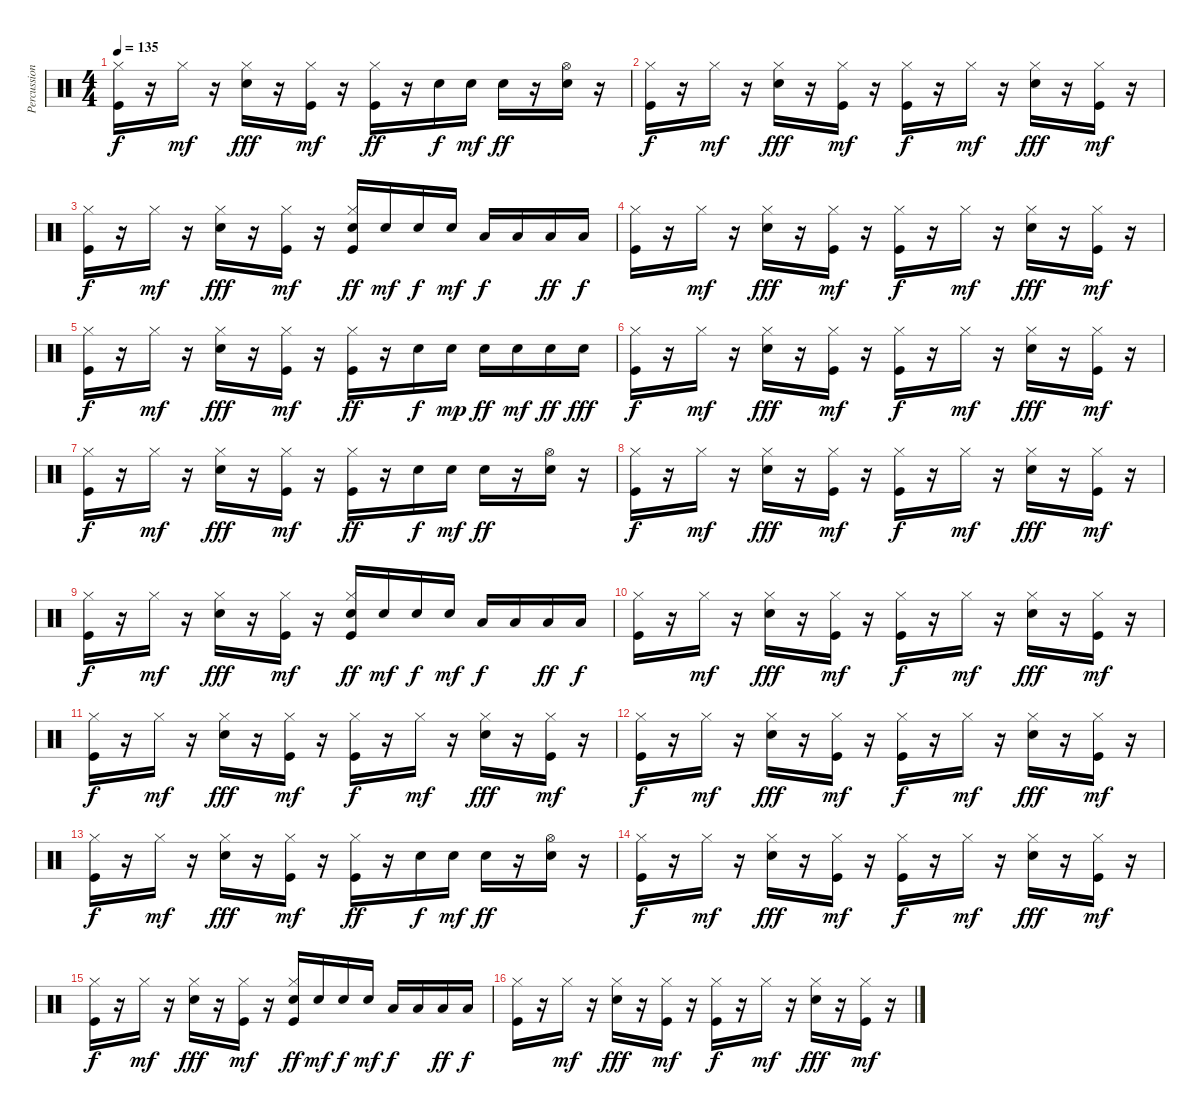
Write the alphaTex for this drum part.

\track ("Percussions" "Percussion") {instrument percussion}
\staff {score}
\articulation defaults
\ts (4 4)
\tempo 135
\clef neutral
\ks c
("Kick (hit)" "Hi-Hat (closed)").16{dy f} r.16 "Hi-Hat (closed)".16{dy mf} r.16 ("Snare (hit) 2" "Hi-Hat (closed)").16{dy fff} r.16 ("Kick (hit)" "Hi-Hat (closed)").16{dy mf} r.16 ("Kick (hit)" "Hi-Hat (closed)").16{dy ff} r.16 "Snare (hit) 2".16{dy f} "Snare (hit) 2".16{dy mf} "Snare (hit) 2".16{dy ff} r.16 ("Snare (hit) 2" "Hi-Hat (open)").16 r.16 |
("Kick (hit)" "Hi-Hat (closed)").16{dy f} r.16 "Hi-Hat (closed)".16{dy mf} r.16 ("Snare (hit) 2" "Hi-Hat (closed)").16{dy fff} r.16 ("Kick (hit)" "Hi-Hat (closed)").16{dy mf} r.16 ("Kick (hit)" "Hi-Hat (closed)").16{dy f} r.16 "Hi-Hat (closed)".16{dy mf} r.16 ("Snare (hit) 2" "Hi-Hat (closed)").16{dy fff} r.16 ("Kick (hit)" "Hi-Hat (closed)").16{dy mf} r.16 |
("Kick (hit)" "Hi-Hat (closed)").16{dy f} r.16 "Hi-Hat (closed)".16{dy mf} r.16 ("Snare (hit) 2" "Hi-Hat (closed)").16{dy fff} r.16 ("Kick (hit)" "Hi-Hat (closed)").16{dy mf} r.16 ("Kick (hit)" "Snare (hit) 2" "Hi-Hat (closed)").16{dy ff} "Snare (hit) 2".16{dy mf} "Snare (hit) 2".16{dy f} "Snare (hit) 2".16{dy mf} "Low Tom (hit)".16{dy f} "Low Tom (hit)".16 "Low Tom (hit)".16{dy ff} "Low Tom (hit)".16{dy f} |
("Kick (hit)" "Hi-Hat (closed)").16 r.16 "Hi-Hat (closed)".16{dy mf} r.16 ("Snare (hit) 2" "Hi-Hat (closed)").16{dy fff} r.16 ("Kick (hit)" "Hi-Hat (closed)").16{dy mf} r.16 ("Kick (hit)" "Hi-Hat (closed)").16{dy f} r.16 "Hi-Hat (closed)".16{dy mf} r.16 ("Snare (hit) 2" "Hi-Hat (closed)").16{dy fff} r.16 ("Kick (hit)" "Hi-Hat (closed)").16{dy mf} r.16 |
("Kick (hit)" "Hi-Hat (closed)").16{dy f} r.16 "Hi-Hat (closed)".16{dy mf} r.16 ("Snare (hit) 2" "Hi-Hat (closed)").16{dy fff} r.16 ("Kick (hit)" "Hi-Hat (closed)").16{dy mf} r.16 ("Kick (hit)" "Hi-Hat (closed)").16{dy ff} r.16 "Snare (hit) 2".16{dy f} "Snare (hit) 2".16{dy mp} "Snare (hit) 2".16{dy ff} "Snare (hit) 2".16{dy mf} "Snare (hit) 2".16{dy ff} "Snare (hit) 2".16{dy fff} |
("Kick (hit)" "Hi-Hat (closed)").16{dy f} r.16 "Hi-Hat (closed)".16{dy mf} r.16 ("Snare (hit) 2" "Hi-Hat (closed)").16{dy fff} r.16 ("Kick (hit)" "Hi-Hat (closed)").16{dy mf} r.16 ("Kick (hit)" "Hi-Hat (closed)").16{dy f} r.16 "Hi-Hat (closed)".16{dy mf} r.16 ("Snare (hit) 2" "Hi-Hat (closed)").16{dy fff} r.16 ("Kick (hit)" "Hi-Hat (closed)").16{dy mf} r.16 |
("Kick (hit)" "Hi-Hat (closed)").16{dy f} r.16 "Hi-Hat (closed)".16{dy mf} r.16 ("Snare (hit) 2" "Hi-Hat (closed)").16{dy fff} r.16 ("Kick (hit)" "Hi-Hat (closed)").16{dy mf} r.16 ("Kick (hit)" "Hi-Hat (closed)").16{dy ff} r.16 "Snare (hit) 2".16{dy f} "Snare (hit) 2".16{dy mf} "Snare (hit) 2".16{dy ff} r.16 ("Snare (hit) 2" "Hi-Hat (open)").16 r.16 |
("Kick (hit)" "Hi-Hat (closed)").16{dy f} r.16 "Hi-Hat (closed)".16{dy mf} r.16 ("Snare (hit) 2" "Hi-Hat (closed)").16{dy fff} r.16 ("Kick (hit)" "Hi-Hat (closed)").16{dy mf} r.16 ("Kick (hit)" "Hi-Hat (closed)").16{dy f} r.16 "Hi-Hat (closed)".16{dy mf} r.16 ("Snare (hit) 2" "Hi-Hat (closed)").16{dy fff} r.16 ("Kick (hit)" "Hi-Hat (closed)").16{dy mf} r.16 |
("Kick (hit)" "Hi-Hat (closed)").16{dy f} r.16 "Hi-Hat (closed)".16{dy mf} r.16 ("Snare (hit) 2" "Hi-Hat (closed)").16{dy fff} r.16 ("Kick (hit)" "Hi-Hat (closed)").16{dy mf} r.16 ("Kick (hit)" "Snare (hit) 2" "Hi-Hat (closed)").16{dy ff} "Snare (hit) 2".16{dy mf} "Snare (hit) 2".16{dy f} "Snare (hit) 2".16{dy mf} "Low Tom (hit)".16{dy f} "Low Tom (hit)".16 "Low Tom (hit)".16{dy ff} "Low Tom (hit)".16{dy f} |
("Kick (hit)" "Hi-Hat (closed)").16 r.16 "Hi-Hat (closed)".16{dy mf} r.16 ("Snare (hit) 2" "Hi-Hat (closed)").16{dy fff} r.16 ("Kick (hit)" "Hi-Hat (closed)").16{dy mf} r.16 ("Kick (hit)" "Hi-Hat (closed)").16{dy f} r.16 "Hi-Hat (closed)".16{dy mf} r.16 ("Snare (hit) 2" "Hi-Hat (closed)").16{dy fff} r.16 ("Kick (hit)" "Hi-Hat (closed)").16{dy mf} r.16 |
("Kick (hit)" "Hi-Hat (closed)").16{dy f} r.16 "Hi-Hat (closed)".16{dy mf} r.16 ("Snare (hit) 2" "Hi-Hat (closed)").16{dy fff} r.16 ("Kick (hit)" "Hi-Hat (closed)").16{dy mf} r.16 ("Kick (hit)" "Hi-Hat (closed)").16{dy f} r.16 "Hi-Hat (closed)".16{dy mf} r.16 ("Snare (hit) 2" "Hi-Hat (closed)").16{dy fff} r.16 ("Kick (hit)" "Hi-Hat (closed)").16{dy mf} r.16 |
("Kick (hit)" "Hi-Hat (closed)").16{dy f} r.16 "Hi-Hat (closed)".16{dy mf} r.16 ("Snare (hit) 2" "Hi-Hat (closed)").16{dy fff} r.16 ("Kick (hit)" "Hi-Hat (closed)").16{dy mf} r.16 ("Kick (hit)" "Hi-Hat (closed)").16{dy f} r.16 "Hi-Hat (closed)".16{dy mf} r.16 ("Snare (hit) 2" "Hi-Hat (closed)").16{dy fff} r.16 ("Kick (hit)" "Hi-Hat (closed)").16{dy mf} r.16 |
("Kick (hit)" "Hi-Hat (closed)").16{dy f} r.16 "Hi-Hat (closed)".16{dy mf} r.16 ("Snare (hit) 2" "Hi-Hat (closed)").16{dy fff} r.16 ("Kick (hit)" "Hi-Hat (closed)").16{dy mf} r.16 ("Kick (hit)" "Hi-Hat (closed)").16{dy ff} r.16 "Snare (hit) 2".16{dy f} "Snare (hit) 2".16{dy mf} "Snare (hit) 2".16{dy ff} r.16 ("Snare (hit) 2" "Hi-Hat (open)").16 r.16 |
("Kick (hit)" "Hi-Hat (closed)").16{dy f} r.16 "Hi-Hat (closed)".16{dy mf} r.16 ("Snare (hit) 2" "Hi-Hat (closed)").16{dy fff} r.16 ("Kick (hit)" "Hi-Hat (closed)").16{dy mf} r.16 ("Kick (hit)" "Hi-Hat (closed)").16{dy f} r.16 "Hi-Hat (closed)".16{dy mf} r.16 ("Snare (hit) 2" "Hi-Hat (closed)").16{dy fff} r.16 ("Kick (hit)" "Hi-Hat (closed)").16{dy mf} r.16 |
("Kick (hit)" "Hi-Hat (closed)").16{dy f} r.16 "Hi-Hat (closed)".16{dy mf} r.16 ("Snare (hit) 2" "Hi-Hat (closed)").16{dy fff} r.16 ("Kick (hit)" "Hi-Hat (closed)").16{dy mf} r.16 ("Kick (hit)" "Snare (hit) 2" "Hi-Hat (closed)").16{dy ff} "Snare (hit) 2".16{dy mf} "Snare (hit) 2".16{dy f} "Snare (hit) 2".16{dy mf} "Low Tom (hit)".16{dy f} "Low Tom (hit)".16 "Low Tom (hit)".16{dy ff} "Low Tom (hit)".16{dy f} |
("Kick (hit)" "Hi-Hat (closed)").16 r.16 "Hi-Hat (closed)".16{dy mf} r.16 ("Snare (hit) 2" "Hi-Hat (closed)").16{dy fff} r.16 ("Kick (hit)" "Hi-Hat (closed)").16{dy mf} r.16 ("Kick (hit)" "Hi-Hat (closed)").16{dy f} r.16 "Hi-Hat (closed)".16{dy mf} r.16 ("Snare (hit) 2" "Hi-Hat (closed)").16{dy fff} r.16 ("Kick (hit)" "Hi-Hat (closed)").16{dy mf} r.16
